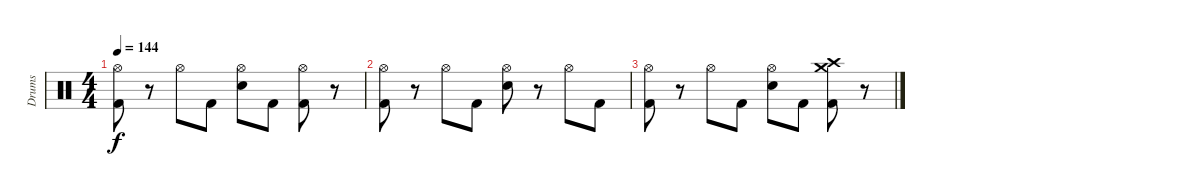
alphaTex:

\track ("Drums" "Drums") {instrument percussion}
\staff {score}
\articulation defaults
\ts (4 4)
\tempo 144
\clef neutral
\ks c
("Hi-Hat (open)" "Kick (hit) 2").8{dy f} r.8 "Hi-Hat (open)".8 "Kick (hit) 2".8 ("Hi-Hat (open)" "Electric Snare (hit)").8 "Kick (hit) 2".8 ("Hi-Hat (open)" "Kick (hit) 2").8 r.8 |
("Hi-Hat (open)" "Kick (hit) 2").8 r.8 "Hi-Hat (open)".8 "Kick (hit) 2".8 ("Hi-Hat (open)" "Electric Snare (hit)").8 r.8 "Hi-Hat (open)".8 "Kick (hit) 2".8 |
("Hi-Hat (open)" "Kick (hit) 2").8 r.8 "Hi-Hat (open)".8 "Kick (hit) 2".8 ("Hi-Hat (open)" "Electric Snare (hit)").8 "Kick (hit) 2".8 ("Crash high (hit)" "Crash medium (hit)" "Kick (hit) 2").8 r.8
